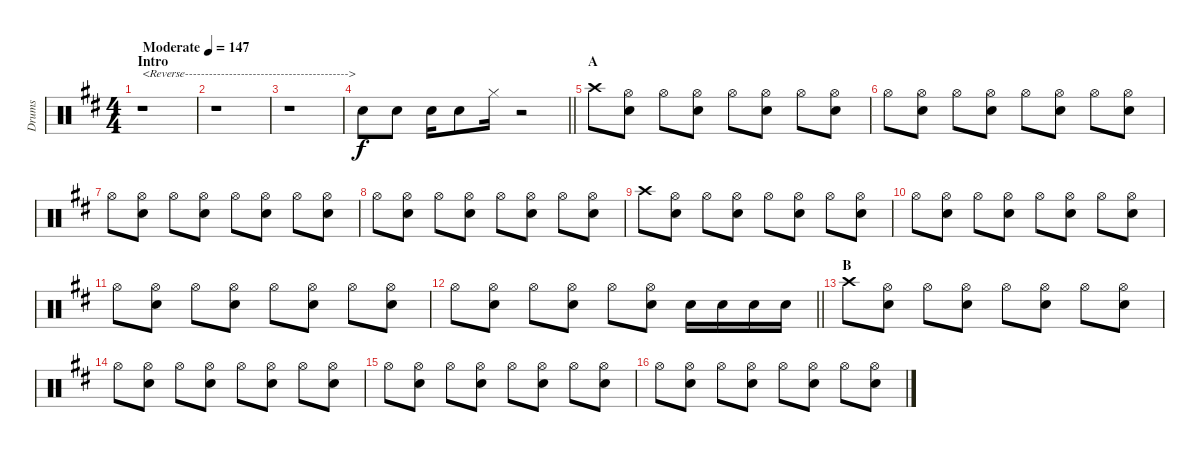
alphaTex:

\track ("Drums" "Drums") {instrument percussion}
\staff {score}
\articulation defaults
\ts (4 4)
\section ("" "Intro")
\tempo (147 "Moderate")
\clef neutral
\ks d
r.1{txt "<Reverse----------------------------------------->" dy f} |
r.1 |
r.1 |
\barLineRight lightlight "Snare (hit) 2".8 "Snare (hit) 2".8 "Snare (hit) 2".16 "Snare (hit) 2".8 "Hi-Hat (closed)".16
r.2 |
\section ("" "A")
"Crash high (hit)".8 ("Hi-Hat (open)" "Snare (hit) 2").8 "Hi-Hat (open)".8 ("Hi-Hat (open)" "Snare (hit) 2").8 "Hi-Hat (open)".8 ("Hi-Hat (open)" "Snare (hit) 2").8 "Hi-Hat (open)".8 ("Hi-Hat (open)" "Snare (hit) 2").8 |
"Hi-Hat (open)".8 ("Hi-Hat (open)" "Snare (hit) 2").8 "Hi-Hat (open)".8 ("Hi-Hat (open)" "Snare (hit) 2").8 "Hi-Hat (open)".8 ("Hi-Hat (open)" "Snare (hit) 2").8 "Hi-Hat (open)".8 ("Hi-Hat (open)" "Snare (hit) 2").8 |
"Hi-Hat (open)".8 ("Hi-Hat (open)" "Snare (hit) 2").8 "Hi-Hat (open)".8 ("Hi-Hat (open)" "Snare (hit) 2").8 "Hi-Hat (open)".8 ("Hi-Hat (open)" "Snare (hit) 2").8 "Hi-Hat (open)".8 ("Hi-Hat (open)" "Snare (hit) 2").8 |
"Hi-Hat (open)".8 ("Hi-Hat (open)" "Snare (hit) 2").8 "Hi-Hat (open)".8 ("Hi-Hat (open)" "Snare (hit) 2").8 "Hi-Hat (open)".8 ("Hi-Hat (open)" "Snare (hit) 2").8 "Hi-Hat (open)".8 ("Hi-Hat (open)" "Snare (hit) 2").8 |
"Crash high (hit)".8 ("Hi-Hat (open)" "Snare (hit) 2").8 "Hi-Hat (open)".8 ("Hi-Hat (open)" "Snare (hit) 2").8 "Hi-Hat (open)".8 ("Hi-Hat (open)" "Snare (hit) 2").8 "Hi-Hat (open)".8 ("Hi-Hat (open)" "Snare (hit) 2").8 |
"Hi-Hat (open)".8 ("Hi-Hat (open)" "Snare (hit) 2").8 "Hi-Hat (open)".8 ("Hi-Hat (open)" "Snare (hit) 2").8 "Hi-Hat (open)".8 ("Hi-Hat (open)" "Snare (hit) 2").8 "Hi-Hat (open)".8 ("Hi-Hat (open)" "Snare (hit) 2").8 |
"Hi-Hat (open)".8 ("Hi-Hat (open)" "Snare (hit) 2").8 "Hi-Hat (open)".8 ("Hi-Hat (open)" "Snare (hit) 2").8 "Hi-Hat (open)".8 ("Hi-Hat (open)" "Snare (hit) 2").8 "Hi-Hat (open)".8 ("Hi-Hat (open)" "Snare (hit) 2").8 |
\barLineRight lightlight "Hi-Hat (open)".8
("Hi-Hat (open)" "Snare (hit) 2").8 "Hi-Hat (open)".8 ("Hi-Hat (open)" "Snare (hit) 2").8 "Hi-Hat (open)".8 ("Hi-Hat (open)" "Snare (hit) 2").8 "Snare (hit) 2".16 "Snare (hit) 2".16 "Snare (hit) 2".16 "Snare (hit) 2".16 |
\section ("" "B")
"Crash high (hit)".8 ("Hi-Hat (open)" "Snare (hit) 2").8 "Hi-Hat (open)".8 ("Hi-Hat (open)" "Snare (hit) 2").8 "Hi-Hat (open)".8 ("Hi-Hat (open)" "Snare (hit) 2").8 "Hi-Hat (open)".8 ("Hi-Hat (open)" "Snare (hit) 2").8 |
"Hi-Hat (open)".8 ("Hi-Hat (open)" "Snare (hit) 2").8 "Hi-Hat (open)".8 ("Hi-Hat (open)" "Snare (hit) 2").8 "Hi-Hat (open)".8 ("Hi-Hat (open)" "Snare (hit) 2").8 "Hi-Hat (open)".8 ("Hi-Hat (open)" "Snare (hit) 2").8 |
"Hi-Hat (open)".8 ("Hi-Hat (open)" "Snare (hit) 2").8 "Hi-Hat (open)".8 ("Hi-Hat (open)" "Snare (hit) 2").8 "Hi-Hat (open)".8 ("Hi-Hat (open)" "Snare (hit) 2").8 "Hi-Hat (open)".8 ("Hi-Hat (open)" "Snare (hit) 2").8 |
"Hi-Hat (open)".8 ("Hi-Hat (open)" "Snare (hit) 2").8 "Hi-Hat (open)".8 ("Hi-Hat (open)" "Snare (hit) 2").8 "Hi-Hat (open)".8 ("Hi-Hat (open)" "Snare (hit) 2").8 "Hi-Hat (open)".8 ("Hi-Hat (open)" "Snare (hit) 2").8
